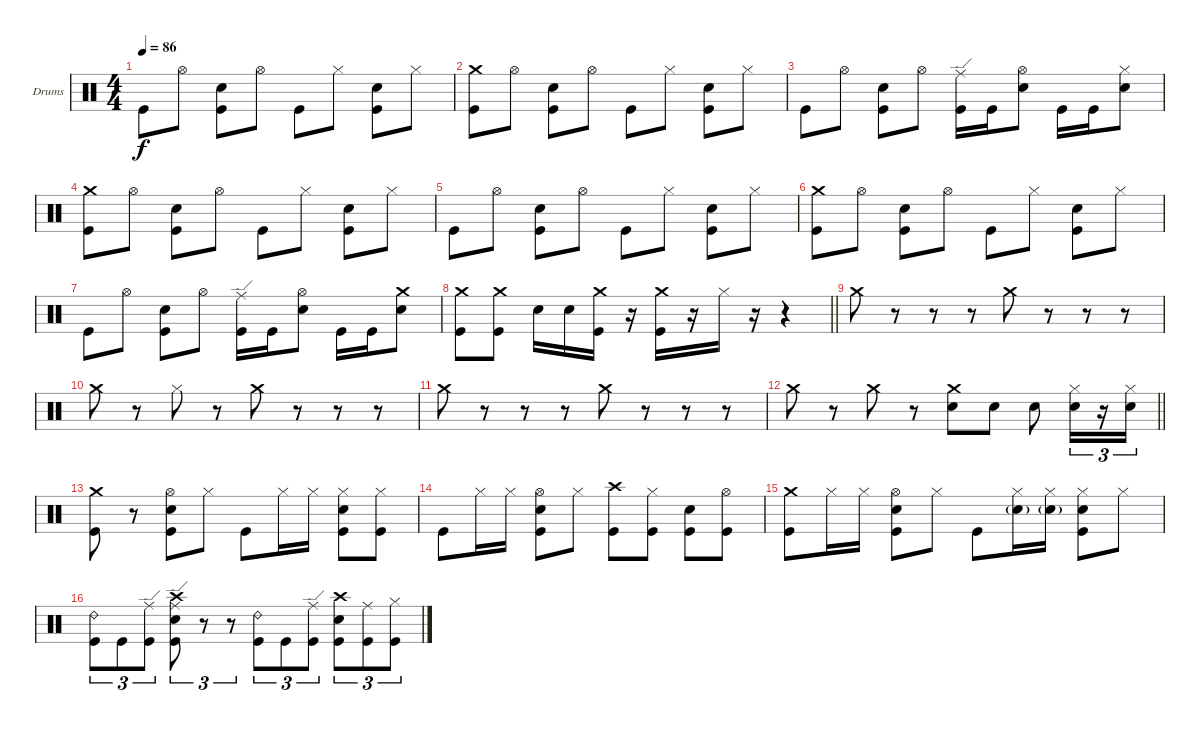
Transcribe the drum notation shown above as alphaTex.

\defaultSystemsLayout 4
\bracketExtendMode groupsimilarinstruments
\firstSystemTrackNameOrientation horizontal
\otherSystemsTrackNameOrientation horizontal
\track ("Drumkit" "Drums") {instrument percussion}
\staff {score}
\articulation defaults
\ts (4 4)
\tempo 86
\clef neutral
\scale
0.333333
\ks c "Kick (hit)".8{dy f} "Hi-Hat (open)".8
("Snare (hit) 2" "Kick (hit)").8 "Hi-Hat (open)".8 "Kick (hit)".8 "Hi-Hat (closed)".8 ("Snare (hit) 2" "Kick (hit)").8 "Hi-Hat (closed)".8 |
\scale
0.333333 ("Crash medium (hit)" "Kick (hit)").8 "Hi-Hat (open)".8 ("Snare (hit) 2" "Kick (hit)").8 "Hi-Hat (open)".8 "Kick (hit)".8 "Hi-Hat (closed)".8 ("Snare (hit) 2" "Kick (hit)").8 "Hi-Hat (closed)".8 |
\scale
0.333333 "Kick (hit)".8 "Hi-Hat (open)".8 ("Snare (hit) 2" "Kick (hit)").8 "Hi-Hat (open)".8 ("Ride (edge)" "Kick (hit)").16 "Kick (hit)".16 ("Hi-Hat (open)" "Snare (hit) 2").8 "Kick (hit)".16 "Kick (hit)".16 ("Hi-Hat (closed)" "Snare (hit) 2").8 |
\scale
0.333333 ("Crash medium (hit)" "Kick (hit)").8 "Hi-Hat (open)".8 ("Snare (hit) 2" "Kick (hit)").8 "Hi-Hat (open)".8 "Kick (hit)".8 "Hi-Hat (closed)".8 ("Snare (hit) 2" "Kick (hit)").8 "Hi-Hat (closed)".8 |
\scale
0.333333 "Kick (hit)".8 "Hi-Hat (open)".8 ("Snare (hit) 2" "Kick (hit)").8 "Hi-Hat (open)".8 "Kick (hit)".8 "Hi-Hat (closed)".8 ("Snare (hit) 2" "Kick (hit)").8 "Hi-Hat (closed)".8 |
\scale
0.333333 ("Crash medium (hit)" "Kick (hit)").8 "Hi-Hat (open)".8 ("Snare (hit) 2" "Kick (hit)").8 "Hi-Hat (open)".8 "Kick (hit)".8 "Hi-Hat (closed)".8 ("Snare (hit) 2" "Kick (hit)").8 "Hi-Hat (closed)".8 |
\scale
0.333333 "Kick (hit)".8 "Hi-Hat (open)".8 ("Snare (hit) 2" "Kick (hit)").8 "Hi-Hat (open)".8 ("Ride (edge)" "Kick (hit)").16 "Kick (hit)".16 ("Hi-Hat (open)" "Snare (hit) 2").8 "Kick (hit)".16 "Kick (hit)".16 ("Crash medium (hit)" "Snare (hit) 2").8 |
\scale
0.333333
\barLineRight lightlight
("Crash medium (hit)" "Kick (hit)").8 ("Crash medium (hit)" "Kick (hit)").8 "Snare (hit) 2".16 "Snare (hit) 2".16 ("Crash medium (hit)" "Kick (hit)").16 r.16 ("Crash medium (hit)" "Kick (hit)").16 r.16 "Hi-Hat (closed)".16 r.16 r.4 |
\scale
0.333333 "Crash medium (hit)".8 r.8 r.8 r.8 "Crash medium (hit)".8 r.8 r.8 r.8 |
\scale
0.333333 "Crash medium (hit)".8 r.8 "Hi-Hat (closed)".8 r.8 "Crash medium (hit)".8 r.8 r.8 r.8 |
\scale
0.333333 "Crash medium (hit)".8 r.8 r.8 r.8 "Crash medium (hit)".8 r.8 r.8 r.8 |
\scale
0.333333
\barLineRight lightlight "Crash medium (hit)".8
r.8 "Crash medium (hit)".8 r.8 ("Crash medium (hit)" "Snare (hit) 2").8 "Snare (hit) 2".8 "Snare (hit) 2".8 ("Hi-Hat (closed)" "Snare (hit) 2").16{tu (3 2)} r.16{tu (3 2)} ("Hi-Hat (closed)" "Snare (hit) 2").16{tu (3 2)} |
\scale
0.333333 ("Crash medium (hit)" "Kick (hit)").8 r.8 ("Hi-Hat (open)" "Snare (hit) 2" "Kick (hit)").8 "Hi-Hat (closed)".8 "Kick (hit)".8 "Hi-Hat (closed)".16 "Hi-Hat (closed)".16 ("Hi-Hat (closed)" "Snare (hit) 2" "Kick (hit)").8 ("Hi-Hat (closed)" "Kick (hit)").8 |
\scale
0.333333 "Kick (hit)".8 "Hi-Hat (closed)".16 "Hi-Hat (closed)".16 ("Hi-Hat (open)" "Snare (hit) 2" "Kick (hit)").8 "Hi-Hat (closed)".8 ("Crash high (hit)" "Kick (hit)").8 ("Hi-Hat (closed)" "Kick (hit)").8 ("Snare (hit) 2" "Kick (hit)").8 ("Hi-Hat (open)" "Kick (hit)").8 |
\scale
0.333333 ("Crash medium (hit)" "Kick (hit)").8 "Hi-Hat (closed)".16 "Hi-Hat (closed)".16 ("Hi-Hat (open)" "Snare (hit) 2" "Kick (hit)").8 "Hi-Hat (closed)".8 "Kick (hit)".8 ("Hi-Hat (closed)" "Snare (hit) 2"{g}).16 ("Hi-Hat (closed)" "Snare (hit) 2"{g}).16 ("Hi-Hat (closed)" "Snare (hit) 2" "Kick (hit)").8 "Hi-Hat (closed)".8 |
\scale
0.333333 ("Ride (bell) 2" "Kick (hit)").8{tu (3 2)} "Kick (hit)".8{tu (3 2)} ("Ride (edge)" "Kick (hit)").8{tu (3 2)} ("Ride (edge)" "Crash high (hit)" "Snare (hit) 2" "Kick (hit)").8{tu (3 2)} r.8{tu (3 2)} r.8{tu (3 2)} ("Ride (bell) 2" "Kick (hit)").8{tu (3 2)} "Kick (hit)".8{tu (3 2)} ("Ride (edge)" "Kick (hit)").8{tu (3 2)} ("Crash high (hit)" "Snare (hit) 2" "Kick (hit)").8{tu (3 2)} ("Ride (middle)" "Kick (hit)").8{tu (3 2)} ("Hi-Hat (closed)" "Kick (hit)").8{tu (3 2)}
